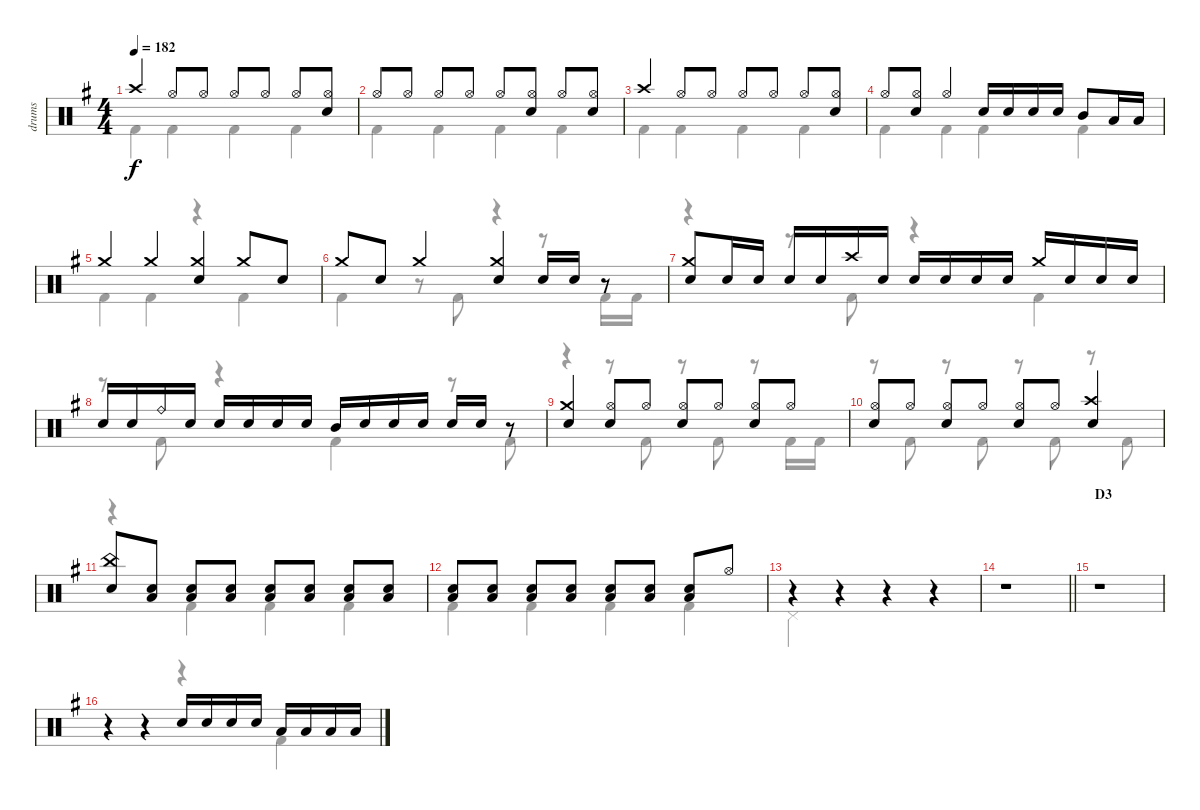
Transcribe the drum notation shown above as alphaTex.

\track ("drums" "drums") {instrument percussion}
\staff {score}
\articulation defaults
\voice
\ts (4 4)
\tempo 182
\clef neutral
\ks g "Crash high (hit)".4{dy f} "Hi-Hat (open)".8 "Hi-Hat (open)".8 "Hi-Hat (open)".8 "Hi-Hat (open)".8 "Hi-Hat (open)".8
("Hi-Hat (open)" "Snare (hit) 2").8 |
"Hi-Hat (open)".8 "Hi-Hat (open)".8 "Hi-Hat (open)".8 "Hi-Hat (open)".8 "Hi-Hat (open)".8 ("Hi-Hat (open)" "Snare (hit) 2").8 "Hi-Hat (open)".8 ("Hi-Hat (open)" "Snare (hit) 2").8 |
"Crash high (hit)".4 "Hi-Hat (open)".8 "Hi-Hat (open)".8 "Hi-Hat (open)".8 "Hi-Hat (open)".8 "Hi-Hat (open)".8 ("Hi-Hat (open)" "Snare (hit) 2").8 |
"Hi-Hat (open)".8 ("Hi-Hat (open)" "Snare (hit) 2").8 "Hi-Hat (open)".4 "Snare (hit) 2".16 "Snare (hit) 2".16 "Snare (hit) 2".16 "Snare (hit) 2".16 "Mid Tom (hit)".8 "Low Floor Tom (hit)".16 "Low Floor Tom (hit)".16 |
"Crash medium (hit)".4 "Crash medium (hit)".4 ("Crash medium (hit)" "Snare (hit) 2").4 "Crash medium (hit)".8 "Snare (hit) 2".8 |
"Crash medium (hit)".8 "Snare (hit) 2".8 "Crash medium (hit)".4 ("Crash medium (hit)" "Snare (hit) 2").4 "Snare (hit) 2".16 "Snare (hit) 2".16 r.8 |
("Crash medium (hit)" "Snare (hit) 2").8 "Snare (hit) 2".16 "Snare (hit) 2".16 "Snare (hit) 2".16 "Snare (hit) 2".16 "Crash high (hit)".16 "Snare (hit) 2".16 "Snare (hit) 2".16 "Snare (hit) 2".16 "Snare (hit) 2".16 "Snare (hit) 2".16 "Crash medium (hit)".16 "Snare (hit) 2".16 "Snare (hit) 2".16 "Snare (hit) 2".16 |
"Snare (hit) 2".16 "Snare (hit) 2".16 "Ride (bell)".16 "Snare (hit) 2".16 "Snare (hit) 2".16 "Snare (hit) 2".16 "Snare (hit) 2".16 "Snare (hit) 2".16 "Mid Tom (hit)".16 "Snare (hit) 2".16 "Snare (hit) 2".16 "Snare (hit) 2".16 "Snare (hit) 2".16 "Snare (hit) 2".16 r.8 |
("Crash medium (hit)" "Snare (hit) 2").4 ("Hi-Hat (open)" "Snare (hit) 2").8 "Hi-Hat (open)".8 ("Hi-Hat (open)" "Snare (hit) 2").8 "Hi-Hat (open)".8 ("Hi-Hat (open)" "Snare (hit) 2").8 "Hi-Hat (open)".8 |
("Hi-Hat (open)" "Snare (hit) 2").8 "Hi-Hat (open)".8 ("Hi-Hat (open)" "Snare (hit) 2").8 "Hi-Hat (open)".8 ("Hi-Hat (open)" "Snare (hit) 2").8 "Hi-Hat (open)".8 ("Crash high (hit)" "Snare (hit) 2").4 |
("China (hit)" "Snare (hit) 2").8 ("Snare (hit) 2" "Low Floor Tom (hit)").8 ("Snare (hit) 2" "Low Floor Tom (hit)").8 ("Snare (hit) 2" "Low Floor Tom (hit)").8 ("Snare (hit) 2" "Low Floor Tom (hit)").8 ("Snare (hit) 2" "Low Floor Tom (hit)").8 ("Snare (hit) 2" "Low Floor Tom (hit)").8 ("Snare (hit) 2" "Low Floor Tom (hit)").8 |
("Snare (hit) 2" "Low Floor Tom (hit)").8 ("Snare (hit) 2" "Low Floor Tom (hit)").8 ("Snare (hit) 2" "Low Floor Tom (hit)").8 ("Snare (hit) 2" "Low Floor Tom (hit)").8 ("Snare (hit) 2" "Low Floor Tom (hit)").8 ("Snare (hit) 2" "Low Floor Tom (hit)").8 ("Snare (hit) 2" "Low Floor Tom (hit)").8 "Hi-Hat (open)".8 |
r.4 r.4 r.4 r.4 |
\barLineRight lightlight
r.1 |
\section ("" "D3")
r.1 |
r.4 r.4 "Snare (hit) 2".16 "Snare (hit) 2".16 "Snare (hit) 2".16 "Snare (hit) 2".16 "Low Tom (hit)".16 "Low Tom (hit)".16 "Low Floor Tom (hit)".16 "Low Floor Tom (hit)".16
\voice
\clef neutral
\ottava regular
\simile none
\ks g "Kick (hit) 2".4{dy f} "Kick (hit) 2".4 "Kick (hit) 2".4 "Kick (hit) 2".4
|
"Kick (hit) 2".4 "Kick (hit) 2".4 "Kick (hit) 2".4 "Kick (hit) 2".4 |
"Kick (hit) 2".4 "Kick (hit) 2".4 "Kick (hit) 2".4 "Kick (hit) 2".4 |
"Kick (hit) 2".4 "Kick (hit) 2".4 "Kick (hit) 2".4 "Kick (hit) 2".4 |
"Kick (hit) 2".4 "Kick (hit) 2".4 r.4 "Kick (hit) 2".4 |
"Kick (hit) 2".4 r.8 "Kick (hit) 2".8 r.4 r.8 "Kick (hit) 2".16 "Kick (hit) 2".16 |
r.4 r.8 "Kick (hit) 2".8 r.4 "Kick (hit) 2".4 |
r.8 "Kick (hit) 2".8 r.4 "Kick (hit) 2".4 r.8 "Kick (hit) 2".8 |
r.4 r.8 "Kick (hit) 2".8 r.8 "Kick (hit) 2".8 r.8 "Kick (hit) 2".16 "Kick (hit) 2".16 |
r.8 "Kick (hit) 2".8 r.8 "Kick (hit) 2".8 r.8 "Kick (hit) 2".8 r.8 "Kick (hit) 2".8 |
r.4 "Kick (hit) 2".4 "Kick (hit) 2".4 "Kick (hit) 2".4 |
"Kick (hit) 2".4 "Kick (hit) 2".4 "Kick (hit) 2".4 "Kick (hit) 2".4 |
"Pedal Hi-Hat (hit)".4 r.4 r.4 r.4 |
\barLineRight lightlight
|
|
r.4 r.4 r.4 "Kick (hit) 2".4
